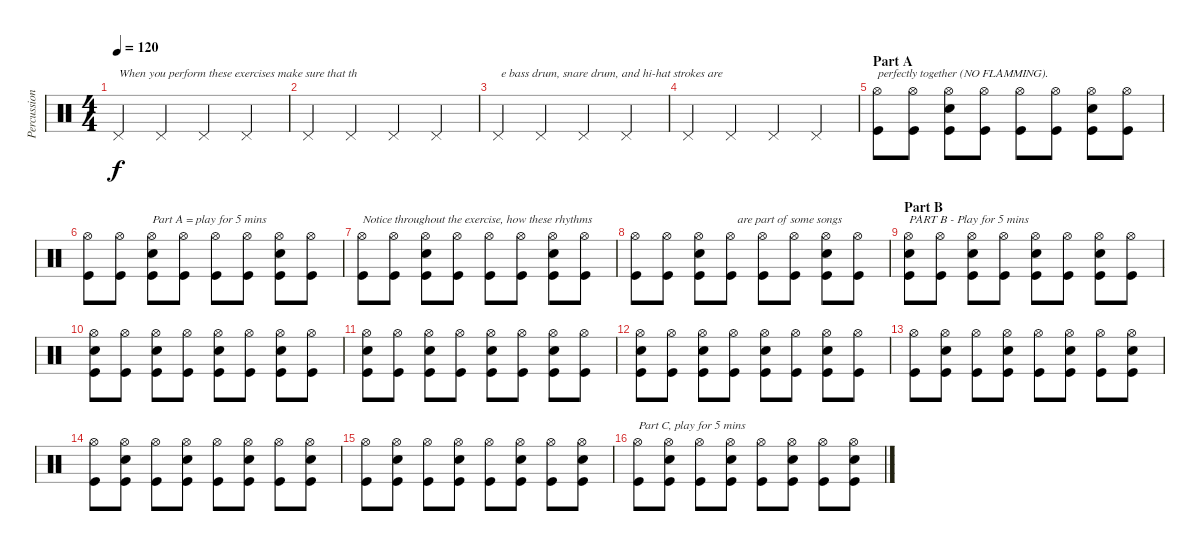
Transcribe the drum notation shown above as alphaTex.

\track ("Percussion" "Percussion") {instrument percussion}
\staff {score}
\articulation defaults
\ts (4 4)
\tempo 120
\clef neutral
\ks c "Pedal Hi-Hat (hit)".4{txt "When you perform these exercises make sure that th" dy f} "Pedal Hi-Hat (hit)".4 "Pedal Hi-Hat (hit)".4 "Pedal Hi-Hat (hit)".4
|
"Pedal Hi-Hat (hit)".4 "Pedal Hi-Hat (hit)".4 "Pedal Hi-Hat (hit)".4 "Pedal Hi-Hat (hit)".4 |
"Pedal Hi-Hat (hit)".4{txt " e bass drum, snare drum, and hi-hat strokes are "} "Pedal Hi-Hat (hit)".4 "Pedal Hi-Hat (hit)".4 "Pedal Hi-Hat (hit)".4 |
"Pedal Hi-Hat (hit)".4 "Pedal Hi-Hat (hit)".4 "Pedal Hi-Hat (hit)".4 "Pedal Hi-Hat (hit)".4 |
\section ("" "Part A")
("Hi-Hat (open)" "Kick (hit)").8{txt "perfectly together (NO FLAMMING)."} ("Hi-Hat (open)" "Kick (hit)").8 ("Hi-Hat (open)" "Electric Snare (hit)" "Kick (hit)").8 ("Hi-Hat (open)" "Kick (hit)").8 ("Hi-Hat (open)" "Kick (hit)").8 ("Hi-Hat (open)" "Kick (hit)").8 ("Hi-Hat (open)" "Electric Snare (hit)" "Kick (hit)").8 ("Hi-Hat (open)" "Kick (hit)").8 |
("Hi-Hat (open)" "Kick (hit)").8 ("Hi-Hat (open)" "Kick (hit)").8 ("Hi-Hat (open)" "Electric Snare (hit)" "Kick (hit)").8{txt "Part A = play for 5 mins"} ("Hi-Hat (open)" "Kick (hit)").8 ("Hi-Hat (open)" "Kick (hit)").8 ("Hi-Hat (open)" "Kick (hit)").8 ("Hi-Hat (open)" "Electric Snare (hit)" "Kick (hit)").8 ("Hi-Hat (open)" "Kick (hit)").8 |
("Hi-Hat (open)" "Kick (hit)").8{txt "Notice throughout the exercise, how these rhythms "} ("Hi-Hat (open)" "Kick (hit)").8 ("Hi-Hat (open)" "Electric Snare (hit)" "Kick (hit)").8 ("Hi-Hat (open)" "Kick (hit)").8 ("Hi-Hat (open)" "Kick (hit)").8 ("Hi-Hat (open)" "Kick (hit)").8 ("Hi-Hat (open)" "Electric Snare (hit)" "Kick (hit)").8 ("Hi-Hat (open)" "Kick (hit)").8 |
("Hi-Hat (open)" "Kick (hit)").8 ("Hi-Hat (open)" "Kick (hit)").8 ("Hi-Hat (open)" "Electric Snare (hit)" "Kick (hit)").8 ("Hi-Hat (open)" "Kick (hit)").8{txt "  are part of some songs"} ("Hi-Hat (open)" "Kick (hit)").8 ("Hi-Hat (open)" "Kick (hit)").8 ("Hi-Hat (open)" "Electric Snare (hit)" "Kick (hit)").8 ("Hi-Hat (open)" "Kick (hit)").8 |
\section ("" "Part B")
("Hi-Hat (open)" "Electric Snare (hit)" "Kick (hit)").8{txt "PART B - Play for 5 mins"} ("Hi-Hat (open)" "Kick (hit)").8 ("Hi-Hat (open)" "Electric Snare (hit)" "Kick (hit)").8 ("Hi-Hat (open)" "Kick (hit)").8 ("Hi-Hat (open)" "Electric Snare (hit)" "Kick (hit)").8 ("Hi-Hat (open)" "Kick (hit)").8 ("Hi-Hat (open)" "Electric Snare (hit)" "Kick (hit)").8 ("Hi-Hat (open)" "Kick (hit)").8 |
("Hi-Hat (open)" "Electric Snare (hit)" "Kick (hit)").8 ("Hi-Hat (open)" "Kick (hit)").8 ("Hi-Hat (open)" "Electric Snare (hit)" "Kick (hit)").8 ("Hi-Hat (open)" "Kick (hit)").8 ("Hi-Hat (open)" "Electric Snare (hit)" "Kick (hit)").8 ("Hi-Hat (open)" "Kick (hit)").8 ("Hi-Hat (open)" "Electric Snare (hit)" "Kick (hit)").8 ("Hi-Hat (open)" "Kick (hit)").8 |
("Hi-Hat (open)" "Electric Snare (hit)" "Kick (hit)").8 ("Hi-Hat (open)" "Kick (hit)").8 ("Hi-Hat (open)" "Electric Snare (hit)" "Kick (hit)").8 ("Hi-Hat (open)" "Kick (hit)").8 ("Hi-Hat (open)" "Electric Snare (hit)" "Kick (hit)").8 ("Hi-Hat (open)" "Kick (hit)").8 ("Hi-Hat (open)" "Electric Snare (hit)" "Kick (hit)").8 ("Hi-Hat (open)" "Kick (hit)").8 |
("Hi-Hat (open)" "Electric Snare (hit)" "Kick (hit)").8 ("Hi-Hat (open)" "Kick (hit)").8 ("Hi-Hat (open)" "Electric Snare (hit)" "Kick (hit)").8 ("Hi-Hat (open)" "Kick (hit)").8 ("Hi-Hat (open)" "Electric Snare (hit)" "Kick (hit)").8 ("Hi-Hat (open)" "Kick (hit)").8 ("Hi-Hat (open)" "Electric Snare (hit)" "Kick (hit)").8 ("Hi-Hat (open)" "Kick (hit)").8 |
("Hi-Hat (open)" "Kick (hit)").8 ("Hi-Hat (open)" "Electric Snare (hit)" "Kick (hit)").8 ("Hi-Hat (open)" "Kick (hit)").8 ("Hi-Hat (open)" "Electric Snare (hit)" "Kick (hit)").8 ("Hi-Hat (open)" "Kick (hit)").8 ("Hi-Hat (open)" "Electric Snare (hit)" "Kick (hit)").8 ("Hi-Hat (open)" "Kick (hit)").8 ("Hi-Hat (open)" "Electric Snare (hit)" "Kick (hit)").8 |
("Hi-Hat (open)" "Kick (hit)").8 ("Hi-Hat (open)" "Electric Snare (hit)" "Kick (hit)").8 ("Hi-Hat (open)" "Kick (hit)").8 ("Hi-Hat (open)" "Electric Snare (hit)" "Kick (hit)").8 ("Hi-Hat (open)" "Kick (hit)").8 ("Hi-Hat (open)" "Electric Snare (hit)" "Kick (hit)").8 ("Hi-Hat (open)" "Kick (hit)").8 ("Hi-Hat (open)" "Electric Snare (hit)" "Kick (hit)").8 |
("Hi-Hat (open)" "Kick (hit)").8 ("Hi-Hat (open)" "Electric Snare (hit)" "Kick (hit)").8 ("Hi-Hat (open)" "Kick (hit)").8 ("Hi-Hat (open)" "Electric Snare (hit)" "Kick (hit)").8 ("Hi-Hat (open)" "Kick (hit)").8 ("Hi-Hat (open)" "Electric Snare (hit)" "Kick (hit)").8 ("Hi-Hat (open)" "Kick (hit)").8 ("Hi-Hat (open)" "Electric Snare (hit)" "Kick (hit)").8 |
("Hi-Hat (open)" "Kick (hit)").8{txt "Part C, play for 5 mins"} ("Hi-Hat (open)" "Electric Snare (hit)" "Kick (hit)").8 ("Hi-Hat (open)" "Kick (hit)").8 ("Hi-Hat (open)" "Electric Snare (hit)" "Kick (hit)").8 ("Hi-Hat (open)" "Kick (hit)").8 ("Hi-Hat (open)" "Electric Snare (hit)" "Kick (hit)").8 ("Hi-Hat (open)" "Kick (hit)").8 ("Hi-Hat (open)" "Electric Snare (hit)" "Kick (hit)").8
